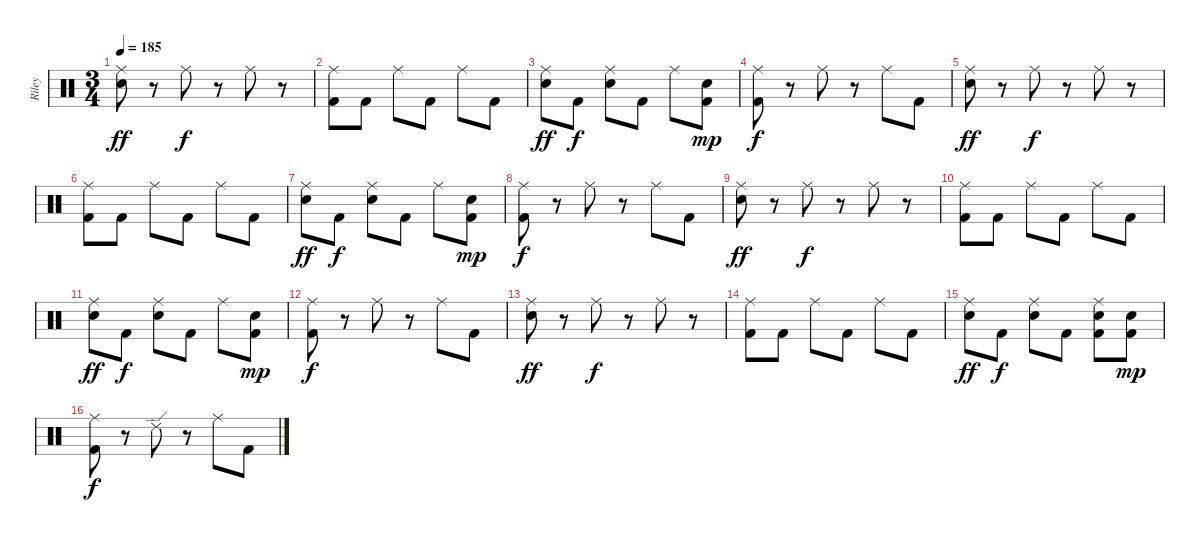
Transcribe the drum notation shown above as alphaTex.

\track ("Riley" "Riley") {instrument percussion}
\staff {score}
\articulation defaults
\ts (3 4)
\tempo 185
\clef neutral
\ks c
("Ride (middle)" "Electric Snare (hit)").8{dy ff} r.8 "Ride (middle)".8{dy f} r.8 "Ride (middle)".8 r.8 |
("Ride (middle)" "Kick (hit) 2").8 "Kick (hit) 2".8 "Ride (middle)".8 "Kick (hit) 2".8 "Ride (middle)".8 "Kick (hit) 2".8 |
("Ride (middle)" "Electric Snare (hit)").8{dy ff} "Kick (hit) 2".8{dy f} ("Ride (middle)" "Electric Snare (hit)").8 "Kick (hit) 2".8 "Ride (middle)".8 ("Electric Snare (hit)" "Kick (hit) 2").8{dy mp} |
("Ride (middle)" "Kick (hit) 2").8{dy f} r.8 "Ride (middle)".8 r.8 "Ride (middle)".8 "Kick (hit) 2".8 |
("Ride (middle)" "Electric Snare (hit)").8{dy ff} r.8 "Ride (middle)".8{dy f} r.8 "Ride (middle)".8 r.8 |
("Ride (middle)" "Kick (hit) 2").8 "Kick (hit) 2".8 "Ride (middle)".8 "Kick (hit) 2".8 "Ride (middle)".8 "Kick (hit) 2".8 |
("Ride (middle)" "Electric Snare (hit)").8{dy ff} "Kick (hit) 2".8{dy f} ("Ride (middle)" "Electric Snare (hit)").8 "Kick (hit) 2".8 "Ride (middle)".8 ("Electric Snare (hit)" "Kick (hit) 2").8{dy mp} |
("Ride (middle)" "Kick (hit) 2").8{dy f} r.8 "Ride (middle)".8 r.8 "Ride (middle)".8 "Kick (hit) 2".8 |
("Ride (middle)" "Electric Snare (hit)").8{dy ff} r.8 "Ride (middle)".8{dy f} r.8 "Ride (middle)".8 r.8 |
("Ride (middle)" "Kick (hit) 2").8 "Kick (hit) 2".8 "Ride (middle)".8 "Kick (hit) 2".8 "Ride (middle)".8 "Kick (hit) 2".8 |
("Ride (middle)" "Electric Snare (hit)").8{dy ff} "Kick (hit) 2".8{dy f} ("Ride (middle)" "Electric Snare (hit)").8 "Kick (hit) 2".8 "Ride (middle)".8 ("Electric Snare (hit)" "Kick (hit) 2").8{dy mp} |
("Ride (middle)" "Kick (hit) 2").8{dy f} r.8 "Ride (middle)".8 r.8 "Ride (middle)".8 "Kick (hit) 2".8 |
("Ride (middle)" "Electric Snare (hit)").8{dy ff} r.8 "Ride (middle)".8{dy f} r.8 "Ride (middle)".8 r.8 |
("Ride (middle)" "Kick (hit) 2").8 "Kick (hit) 2".8 "Ride (middle)".8 "Kick (hit) 2".8 "Ride (middle)".8 "Kick (hit) 2".8 |
("Ride (middle)" "Electric Snare (hit)").8{dy ff} "Kick (hit) 2".8{dy f} ("Ride (middle)" "Electric Snare (hit)").8 "Kick (hit) 2".8 ("Ride (middle)" "Electric Snare (hit)" "Kick (hit) 2").8 ("Electric Snare (hit)" "Kick (hit) 2").8{dy mp} |
("Ride (middle)" "Kick (hit) 2").8{dy f} r.8 "Ride (edge) 2".8 r.8 "Ride (middle)".8 "Kick (hit) 2".8
